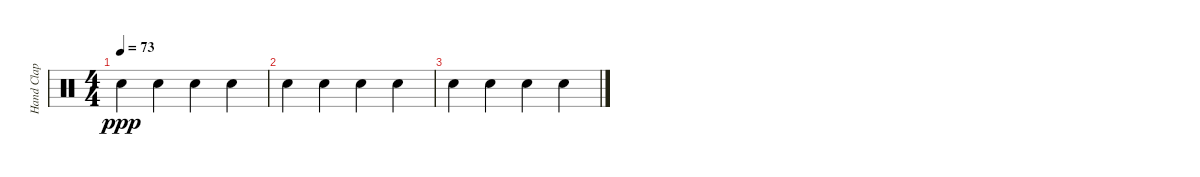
\track ("Hand Clap" "Hand Clap") {instrument percussion}
\staff {score}
\articulation defaults
\ts (4 4)
\tempo 73
\clef neutral
\ks c "Hand Clap (hit)".4{dy ppp} "Hand Clap (hit)".4 "Hand Clap (hit)".4 "Hand Clap (hit)".4
|
"Hand Clap (hit)".4 "Hand Clap (hit)".4 "Hand Clap (hit)".4 "Hand Clap (hit)".4 |
"Hand Clap (hit)".4 "Hand Clap (hit)".4 "Hand Clap (hit)".4 "Hand Clap (hit)".4
